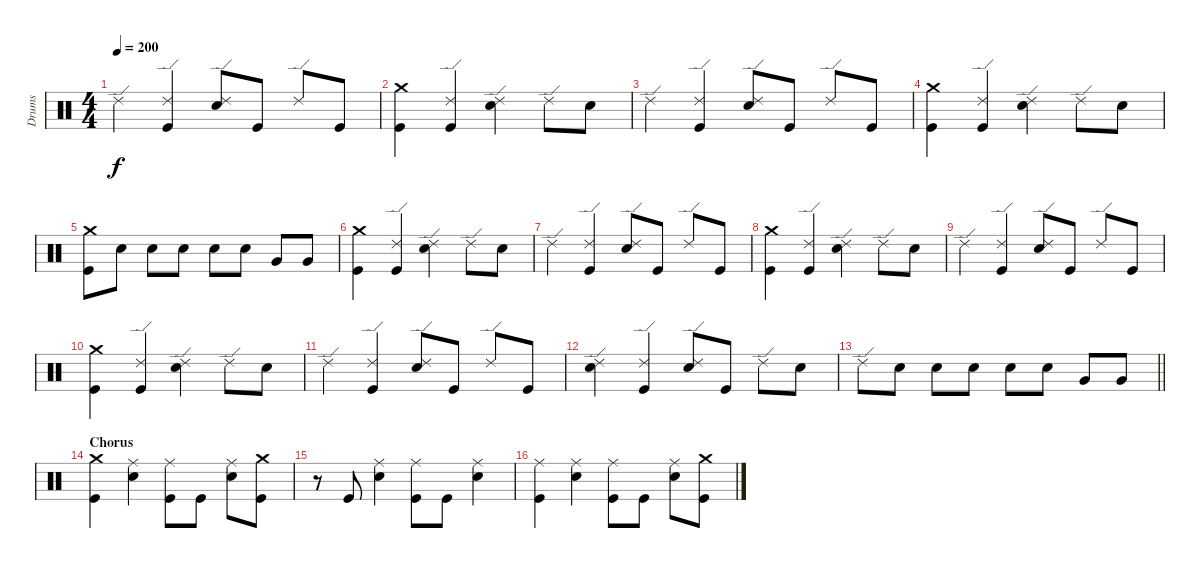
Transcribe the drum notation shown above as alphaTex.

\track ("Drums" "Drums") {instrument percussion}
\staff {score}
\articulation defaults
\ts (4 4)
\tempo 200
\clef neutral
\ks c "Ride (edge) 2".4{dy f}
("Ride (edge) 2" "Kick (hit)").4 ("Snare (hit) 2" "Ride (edge) 2").8 "Kick (hit)".8 "Ride (edge) 2".8 "Kick (hit)".8 |
("Kick (hit)" "Crash medium (hit)").4 ("Kick (hit)" "Ride (edge) 2").4 ("Ride (edge) 2" "Snare (hit) 2").4 "Ride (edge) 2".8 "Snare (hit) 2".8 |
"Ride (edge) 2".4 ("Ride (edge) 2" "Kick (hit)").4 ("Snare (hit) 2" "Ride (edge) 2").8 "Kick (hit)".8 "Ride (edge) 2".8 "Kick (hit)".8 |
("Kick (hit)" "Crash medium (hit)").4 ("Kick (hit)" "Ride (edge) 2").4 ("Ride (edge) 2" "Snare (hit) 2").4 "Ride (edge) 2".8 "Snare (hit) 2".8 |
("Kick (hit)" "Crash medium (hit)").8 "Snare (hit) 2".8 "Snare (hit) 2".8 "Snare (hit) 2".8 "Snare (hit) 2".8 "Snare (hit) 2".8 "Very Low Tom (hit)".8 "Very Low Tom (hit)".8 |
("Kick (hit)" "Crash medium (hit)").4 ("Kick (hit)" "Ride (edge) 2").4 ("Ride (edge) 2" "Snare (hit) 2").4 "Ride (edge) 2".8 "Snare (hit) 2".8 |
"Ride (edge) 2".4 ("Ride (edge) 2" "Kick (hit)").4 ("Snare (hit) 2" "Ride (edge) 2").8 "Kick (hit)".8 "Ride (edge) 2".8 "Kick (hit)".8 |
("Kick (hit)" "Crash medium (hit)").4 ("Kick (hit)" "Ride (edge) 2").4 ("Ride (edge) 2" "Snare (hit) 2").4 "Ride (edge) 2".8 "Snare (hit) 2".8 |
"Ride (edge) 2".4 ("Ride (edge) 2" "Kick (hit)").4 ("Snare (hit) 2" "Ride (edge) 2").8 "Kick (hit)".8 "Ride (edge) 2".8 "Kick (hit)".8 |
("Kick (hit)" "Crash medium (hit)").4 ("Kick (hit)" "Ride (edge) 2").4 ("Ride (edge) 2" "Snare (hit) 2").4 "Ride (edge) 2".8 "Snare (hit) 2".8 |
"Ride (edge) 2".4 ("Ride (edge) 2" "Kick (hit)").4 ("Snare (hit) 2" "Ride (edge) 2").8 "Kick (hit)".8 "Ride (edge) 2".8 "Kick (hit)".8 |
("Snare (hit) 2" "Ride (edge) 2").4 ("Kick (hit)" "Ride (edge) 2").4 ("Snare (hit) 2" "Ride (edge) 2").8 "Kick (hit)".8 "Ride (edge) 2".8 "Snare (hit) 2".8 |
\barLineRight lightlight "Ride (edge) 2".8 "Snare (hit) 2".8 "Snare (hit) 2".8 "Snare (hit) 2".8 "Snare (hit) 2".8 "Snare (hit) 2".8 "Very Low Tom (hit)".8 "Very Low Tom (hit)".8
|
\section ("" "Chorus")
("Kick (hit)" "Crash medium (hit)").4 ("Snare (hit) 2" "Ride (middle)").4 ("Kick (hit)" "Ride (middle)").8 "Kick (hit)".8 ("Snare (hit) 2" "Ride (middle)").8 ("Kick (hit)" "Crash medium (hit)").8 |
r.8 "Kick (hit)".8 ("Snare (hit) 2" "Ride (middle)").4 ("Kick (hit)" "Ride (middle)").8 "Kick (hit)".8 ("Snare (hit) 2" "Ride (middle)").4 |
("Kick (hit)" "Ride (middle)").4 ("Snare (hit) 2" "Ride (middle)").4 ("Kick (hit)" "Ride (middle)").8 "Kick (hit)".8 ("Snare (hit) 2" "Ride (middle)").8 ("Kick (hit)" "Crash medium (hit)").8
